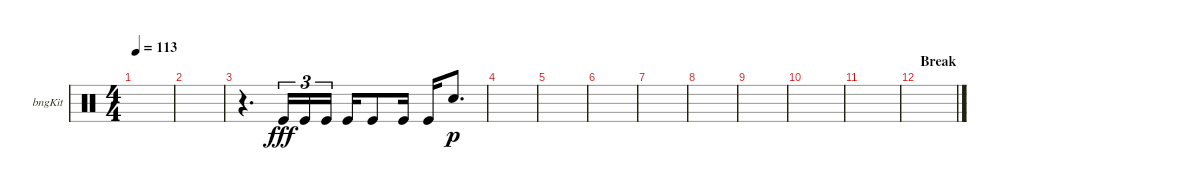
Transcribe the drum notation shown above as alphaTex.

\defaultSystemsLayout 4
\bracketExtendMode groupsimilarinstruments
\firstSystemTrackNameOrientation horizontal
\otherSystemsTrackNameOrientation horizontal
\track ("Bongos" "bngKit") {instrument percussion}
\staff {score}
\articulation defaults
\ts (4 4)
\tempo 113
\clef neutral
\scale
0.333333
\ks c
|
\scale
0.333333 |
\scale
0.333333 r.4{d} "Kick (hit)".16{tu (3 2) dy fff} "Kick (hit)".16{tu (3 2)} "Kick (hit)".16{tu (3 2)} "Kick (hit)".16 "Kick (hit)".8 "Kick (hit)".16 "Kick (hit)".16 "Snare (hit) 2".8{d dy p} |
\scale
0.333333 |
\scale
0.333333 |
\scale
0.333333 |
\scale
0.333333 |
\scale
0.333333 |
\scale
0.333333 |
\scale
0.333333 |
\scale
0.333333 |
\section ("" "Break")
\scale
0.333333 |
\scale
0.333333
